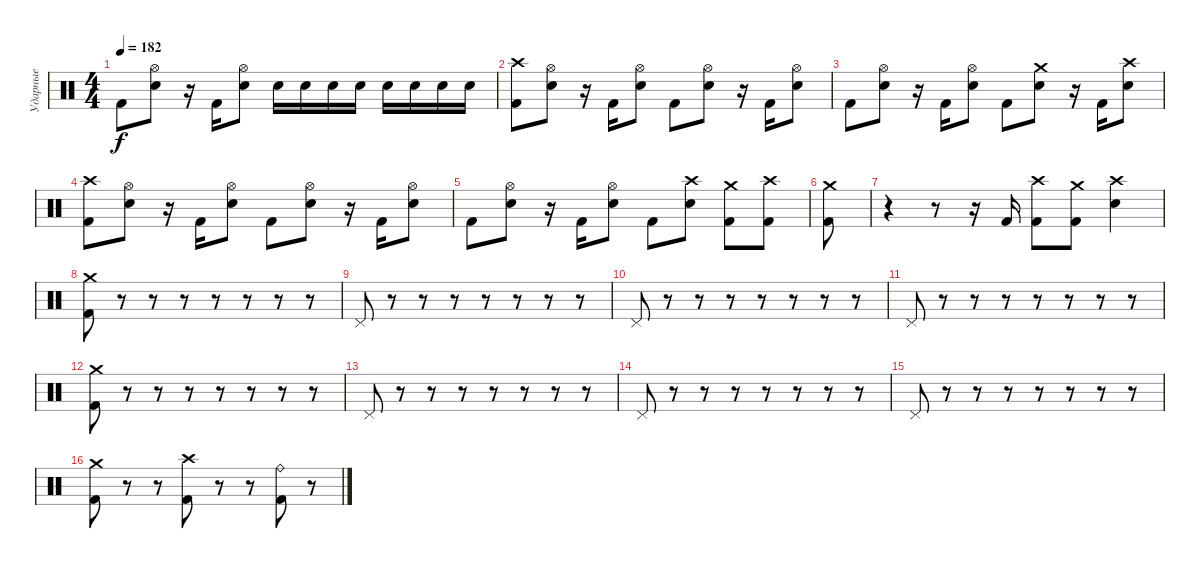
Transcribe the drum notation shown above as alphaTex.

\track ("Ударные" "Ударные") {instrument percussion}
\staff {score}
\articulation defaults
\ts (4 4)
\tempo 182
\clef neutral
\ks c "Kick (hit) 2".8{dy f}
("Hi-Hat (open)" "Electric Snare (hit)").8 r.16 "Kick (hit) 2".16 ("Hi-Hat (open)" "Electric Snare (hit)").8 "Electric Snare (hit)".16 "Electric Snare (hit)".16 "Electric Snare (hit)".16 "Electric Snare (hit)".16 "Electric Snare (hit)".16 "Electric Snare (hit)".16 "Electric Snare (hit)".16 "Electric Snare (hit)".16 |
("Crash high (hit)" "Kick (hit) 2").8 ("Hi-Hat (open)" "Electric Snare (hit)").8 r.16 "Kick (hit) 2".16 ("Hi-Hat (open)" "Electric Snare (hit)").8 "Kick (hit) 2".8 ("Hi-Hat (open)" "Electric Snare (hit)").8 r.16 "Kick (hit) 2".16 ("Hi-Hat (open)" "Electric Snare (hit)").8 |
"Kick (hit) 2".8 ("Hi-Hat (open)" "Electric Snare (hit)").8 r.16 "Kick (hit) 2".16 ("Hi-Hat (open)" "Electric Snare (hit)").8 "Kick (hit) 2".8 ("Crash medium (hit)" "Electric Snare (hit)").8 r.16 "Kick (hit) 2".16 ("Crash high (hit)" "Electric Snare (hit)").8 |
("Crash high (hit)" "Kick (hit) 2").8 ("Hi-Hat (open)" "Electric Snare (hit)").8 r.16 "Kick (hit) 2".16 ("Hi-Hat (open)" "Electric Snare (hit)").8 "Kick (hit) 2".8 ("Hi-Hat (open)" "Electric Snare (hit)").8 r.16 "Kick (hit) 2".16 ("Hi-Hat (open)" "Electric Snare (hit)").8 |
"Kick (hit) 2".8 ("Hi-Hat (open)" "Electric Snare (hit)").8 r.16 "Kick (hit) 2".16 ("Hi-Hat (open)" "Electric Snare (hit)").8 "Kick (hit) 2".8 ("Crash high (hit)" "Electric Snare (hit)").8 ("Crash medium (hit)" "Kick (hit) 2").8 ("Crash high (hit)" "Kick (hit) 2").8 |
("Crash medium (hit)" "Kick (hit) 2").8 |
r.4 r.8 r.16 "Kick (hit) 2".16 ("Crash high (hit)" "Kick (hit) 2").8 ("Crash medium (hit)" "Kick (hit) 2").8 ("Crash high (hit)" "Electric Snare (hit)").4 |
("Crash medium (hit)" "Kick (hit) 2").8 r.8 r.8 r.8 r.8 r.8 r.8 r.8 |
"Pedal Hi-Hat (hit)".8 r.8 r.8 r.8 r.8 r.8 r.8 r.8 |
"Pedal Hi-Hat (hit)".8 r.8 r.8 r.8 r.8 r.8 r.8 r.8 |
"Pedal Hi-Hat (hit)".8 r.8 r.8 r.8 r.8 r.8 r.8 r.8 |
("Crash medium (hit)" "Kick (hit) 2").8 r.8 r.8 r.8 r.8 r.8 r.8 r.8 |
"Pedal Hi-Hat (hit)".8 r.8 r.8 r.8 r.8 r.8 r.8 r.8 |
"Pedal Hi-Hat (hit)".8 r.8 r.8 r.8 r.8 r.8 r.8 r.8 |
"Pedal Hi-Hat (hit)".8 r.8 r.8 r.8 r.8 r.8 r.8 r.8 |
("Crash medium (hit)" "Kick (hit) 2").8 r.8 r.8 ("Crash high (hit)" "Kick (hit) 2").8 r.8 r.8 ("Ride (bell)" "Kick (hit) 2").8 r.8
